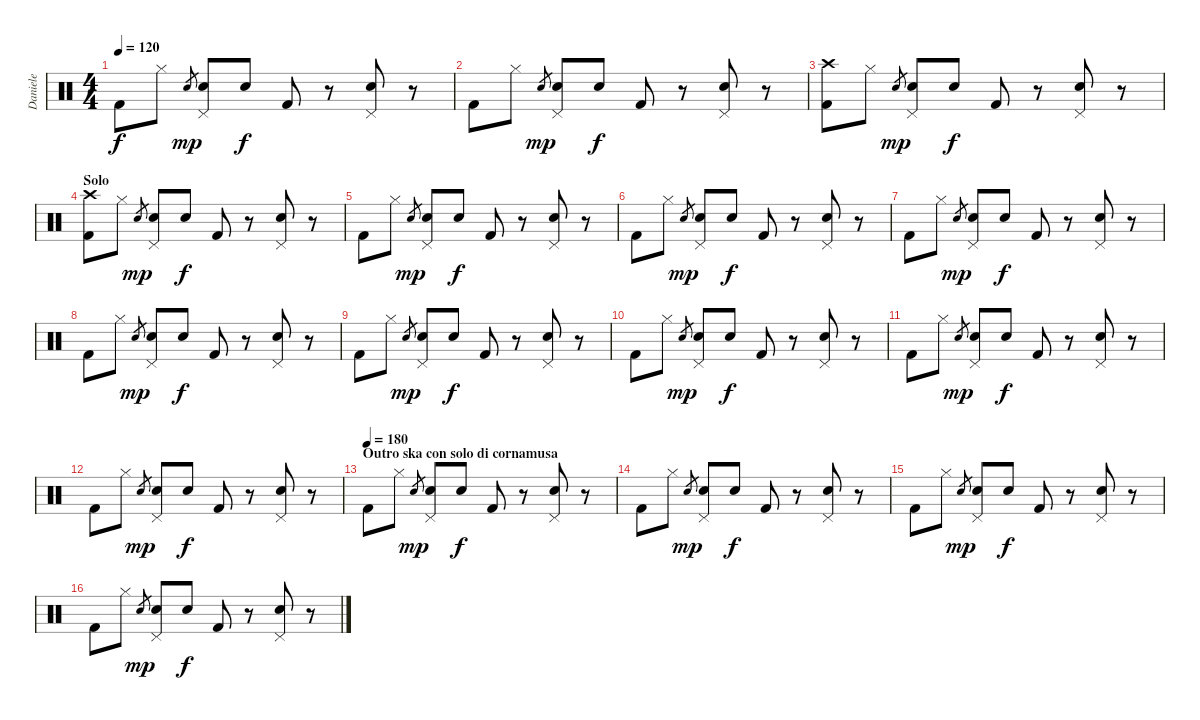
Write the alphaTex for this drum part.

\track ("Daniele" "Daniele") {instrument percussion}
\staff {score}
\articulation defaults
\ts (4 4)
\tempo 120
\clef neutral
\ks c "Kick (hit) 2".8{dy f} "Hi-Hat (closed)".8 "Electric Snare (hit)".8{gr dy mp}
("Electric Snare (hit)" "Pedal Hi-Hat (hit)").8 "Electric Snare (hit)".8{dy f} "Kick (hit) 2".8 r.8 ("Electric Snare (hit)" "Pedal Hi-Hat (hit)").8 r.8 |
"Kick (hit) 2".8 "Hi-Hat (closed)".8 "Electric Snare (hit)".8{gr dy mp} ("Electric Snare (hit)" "Pedal Hi-Hat (hit)").8 "Electric Snare (hit)".8{dy f} "Kick (hit) 2".8 r.8 ("Electric Snare (hit)" "Pedal Hi-Hat (hit)").8 r.8 |
("Crash high (hit)" "Kick (hit) 2").8 "Hi-Hat (closed)".8 "Electric Snare (hit)".8{gr dy mp} ("Electric Snare (hit)" "Pedal Hi-Hat (hit)").8 "Electric Snare (hit)".8{dy f} "Kick (hit) 2".8 r.8 ("Electric Snare (hit)" "Pedal Hi-Hat (hit)").8 r.8 |
\section ("" "Solo")
("Crash high (hit)" "Kick (hit) 2").8 "Hi-Hat (closed)".8 "Electric Snare (hit)".8{gr dy mp} ("Electric Snare (hit)" "Pedal Hi-Hat (hit)").8 "Electric Snare (hit)".8{dy f} "Kick (hit) 2".8 r.8 ("Electric Snare (hit)" "Pedal Hi-Hat (hit)").8 r.8 |
"Kick (hit) 2".8 "Hi-Hat (closed)".8 "Electric Snare (hit)".8{gr dy mp} ("Electric Snare (hit)" "Pedal Hi-Hat (hit)").8 "Electric Snare (hit)".8{dy f} "Kick (hit) 2".8 r.8 ("Electric Snare (hit)" "Pedal Hi-Hat (hit)").8 r.8 |
"Kick (hit) 2".8 "Hi-Hat (closed)".8 "Electric Snare (hit)".8{gr dy mp} ("Electric Snare (hit)" "Pedal Hi-Hat (hit)").8 "Electric Snare (hit)".8{dy f} "Kick (hit) 2".8 r.8 ("Electric Snare (hit)" "Pedal Hi-Hat (hit)").8 r.8 |
"Kick (hit) 2".8 "Hi-Hat (closed)".8 "Electric Snare (hit)".8{gr dy mp} ("Electric Snare (hit)" "Pedal Hi-Hat (hit)").8 "Electric Snare (hit)".8{dy f} "Kick (hit) 2".8 r.8 ("Electric Snare (hit)" "Pedal Hi-Hat (hit)").8 r.8 |
"Kick (hit) 2".8 "Hi-Hat (closed)".8 "Electric Snare (hit)".8{gr dy mp} ("Electric Snare (hit)" "Pedal Hi-Hat (hit)").8 "Electric Snare (hit)".8{dy f} "Kick (hit) 2".8 r.8 ("Electric Snare (hit)" "Pedal Hi-Hat (hit)").8 r.8 |
"Kick (hit) 2".8 "Hi-Hat (closed)".8 "Electric Snare (hit)".8{gr dy mp} ("Electric Snare (hit)" "Pedal Hi-Hat (hit)").8 "Electric Snare (hit)".8{dy f} "Kick (hit) 2".8 r.8 ("Electric Snare (hit)" "Pedal Hi-Hat (hit)").8 r.8 |
"Kick (hit) 2".8 "Hi-Hat (closed)".8 "Electric Snare (hit)".8{gr dy mp} ("Electric Snare (hit)" "Pedal Hi-Hat (hit)").8 "Electric Snare (hit)".8{dy f} "Kick (hit) 2".8 r.8 ("Electric Snare (hit)" "Pedal Hi-Hat (hit)").8 r.8 |
"Kick (hit) 2".8 "Hi-Hat (closed)".8 "Electric Snare (hit)".8{gr dy mp} ("Electric Snare (hit)" "Pedal Hi-Hat (hit)").8 "Electric Snare (hit)".8{dy f} "Kick (hit) 2".8 r.8 ("Electric Snare (hit)" "Pedal Hi-Hat (hit)").8 r.8 |
"Kick (hit) 2".8 "Hi-Hat (closed)".8 "Electric Snare (hit)".8{gr dy mp} ("Electric Snare (hit)" "Pedal Hi-Hat (hit)").8 "Electric Snare (hit)".8{dy f} "Kick (hit) 2".8 r.8 ("Electric Snare (hit)" "Pedal Hi-Hat (hit)").8 r.8 |
\section ("" "Outro ska con solo di cornamusa")
\tempo (180)
"Kick (hit) 2".8 "Hi-Hat (closed)".8 "Electric Snare (hit)".8{gr dy mp} ("Electric Snare (hit)" "Pedal Hi-Hat (hit)").8 "Electric Snare (hit)".8{dy f} "Kick (hit) 2".8 r.8 ("Electric Snare (hit)" "Pedal Hi-Hat (hit)").8 r.8 |
"Kick (hit) 2".8 "Hi-Hat (closed)".8 "Electric Snare (hit)".8{gr dy mp} ("Electric Snare (hit)" "Pedal Hi-Hat (hit)").8 "Electric Snare (hit)".8{dy f} "Kick (hit) 2".8 r.8 ("Electric Snare (hit)" "Pedal Hi-Hat (hit)").8 r.8 |
"Kick (hit) 2".8 "Hi-Hat (closed)".8 "Electric Snare (hit)".8{gr dy mp} ("Electric Snare (hit)" "Pedal Hi-Hat (hit)").8 "Electric Snare (hit)".8{dy f} "Kick (hit) 2".8 r.8 ("Electric Snare (hit)" "Pedal Hi-Hat (hit)").8 r.8 |
"Kick (hit) 2".8 "Hi-Hat (closed)".8 "Electric Snare (hit)".8{gr dy mp} ("Electric Snare (hit)" "Pedal Hi-Hat (hit)").8 "Electric Snare (hit)".8{dy f} "Kick (hit) 2".8 r.8 ("Electric Snare (hit)" "Pedal Hi-Hat (hit)").8 r.8
